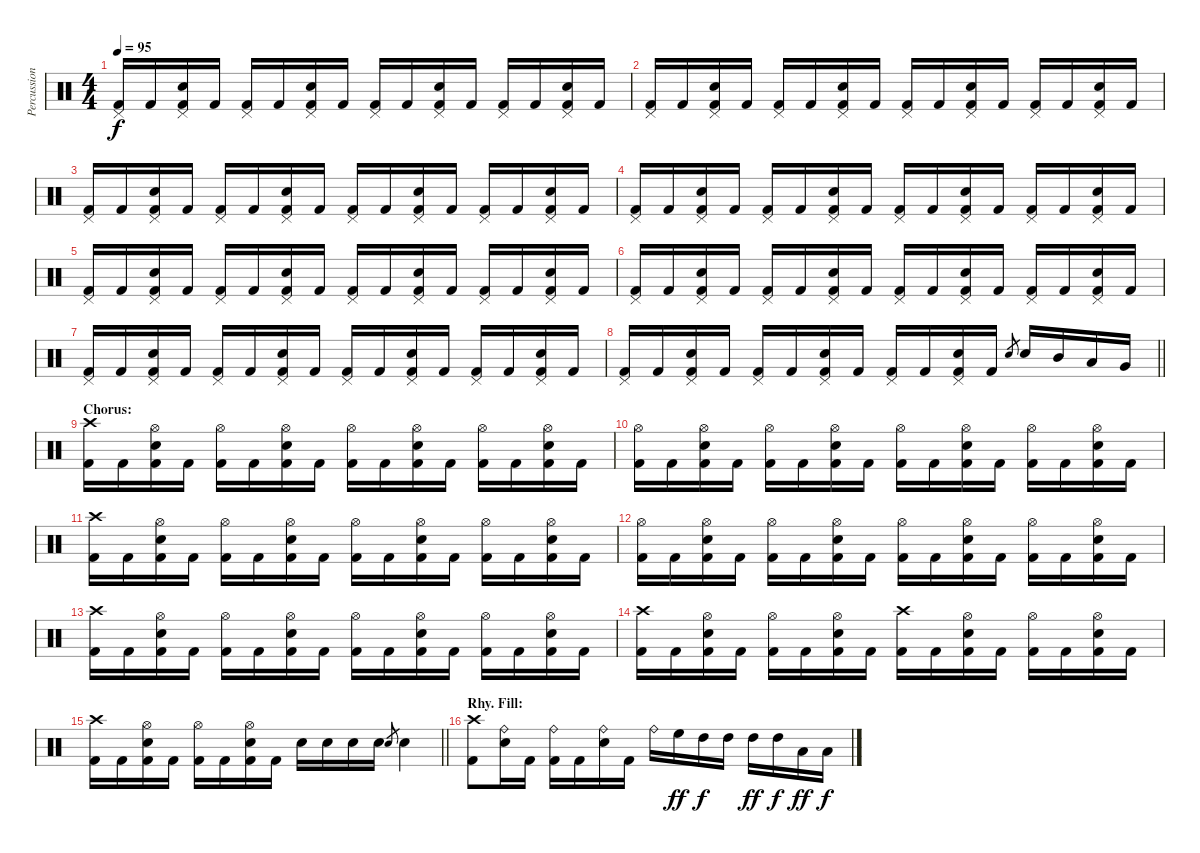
\track ("Percussion" "Percussion") {instrument percussion}
\staff {score}
\articulation defaults
\ts (4 4)
\tempo 95
\clef neutral
\ks c
("Pedal Hi-Hat (hit)" "Kick (hit) 2").16{dy f} "Kick (hit) 2".16 ("Pedal Hi-Hat (hit)" "Electric Snare (hit)" "Kick (hit) 2").16 "Kick (hit) 2".16 ("Pedal Hi-Hat (hit)" "Kick (hit) 2").16 "Kick (hit) 2".16 ("Pedal Hi-Hat (hit)" "Electric Snare (hit)" "Kick (hit) 2").16 "Kick (hit) 2".16 ("Pedal Hi-Hat (hit)" "Kick (hit) 2").16 "Kick (hit) 2".16 ("Pedal Hi-Hat (hit)" "Electric Snare (hit)" "Kick (hit) 2").16 "Kick (hit) 2".16 ("Pedal Hi-Hat (hit)" "Kick (hit) 2").16 "Kick (hit) 2".16 ("Pedal Hi-Hat (hit)" "Electric Snare (hit)" "Kick (hit) 2").16 "Kick (hit) 2".16 |
("Pedal Hi-Hat (hit)" "Kick (hit) 2").16 "Kick (hit) 2".16 ("Pedal Hi-Hat (hit)" "Electric Snare (hit)" "Kick (hit) 2").16 "Kick (hit) 2".16 ("Pedal Hi-Hat (hit)" "Kick (hit) 2").16 "Kick (hit) 2".16 ("Pedal Hi-Hat (hit)" "Electric Snare (hit)" "Kick (hit) 2").16 "Kick (hit) 2".16 ("Pedal Hi-Hat (hit)" "Kick (hit) 2").16 "Kick (hit) 2".16 ("Pedal Hi-Hat (hit)" "Electric Snare (hit)" "Kick (hit) 2").16 "Kick (hit) 2".16 ("Pedal Hi-Hat (hit)" "Kick (hit) 2").16 "Kick (hit) 2".16 ("Pedal Hi-Hat (hit)" "Electric Snare (hit)" "Kick (hit) 2").16 "Kick (hit) 2".16 |
("Pedal Hi-Hat (hit)" "Kick (hit) 2").16 "Kick (hit) 2".16 ("Pedal Hi-Hat (hit)" "Electric Snare (hit)" "Kick (hit) 2").16 "Kick (hit) 2".16 ("Pedal Hi-Hat (hit)" "Kick (hit) 2").16 "Kick (hit) 2".16 ("Pedal Hi-Hat (hit)" "Electric Snare (hit)" "Kick (hit) 2").16 "Kick (hit) 2".16 ("Pedal Hi-Hat (hit)" "Kick (hit) 2").16 "Kick (hit) 2".16 ("Pedal Hi-Hat (hit)" "Electric Snare (hit)" "Kick (hit) 2").16 "Kick (hit) 2".16 ("Pedal Hi-Hat (hit)" "Kick (hit) 2").16 "Kick (hit) 2".16 ("Pedal Hi-Hat (hit)" "Electric Snare (hit)" "Kick (hit) 2").16 "Kick (hit) 2".16 |
("Pedal Hi-Hat (hit)" "Kick (hit) 2").16 "Kick (hit) 2".16 ("Pedal Hi-Hat (hit)" "Electric Snare (hit)" "Kick (hit) 2").16 "Kick (hit) 2".16 ("Pedal Hi-Hat (hit)" "Kick (hit) 2").16 "Kick (hit) 2".16 ("Pedal Hi-Hat (hit)" "Electric Snare (hit)" "Kick (hit) 2").16 "Kick (hit) 2".16 ("Pedal Hi-Hat (hit)" "Kick (hit) 2").16 "Kick (hit) 2".16 ("Pedal Hi-Hat (hit)" "Electric Snare (hit)" "Kick (hit) 2").16 "Kick (hit) 2".16 ("Pedal Hi-Hat (hit)" "Kick (hit) 2").16 "Kick (hit) 2".16 ("Pedal Hi-Hat (hit)" "Electric Snare (hit)" "Kick (hit) 2").16 "Kick (hit) 2".16 |
("Pedal Hi-Hat (hit)" "Kick (hit) 2").16 "Kick (hit) 2".16 ("Pedal Hi-Hat (hit)" "Electric Snare (hit)" "Kick (hit) 2").16 "Kick (hit) 2".16 ("Pedal Hi-Hat (hit)" "Kick (hit) 2").16 "Kick (hit) 2".16 ("Pedal Hi-Hat (hit)" "Electric Snare (hit)" "Kick (hit) 2").16 "Kick (hit) 2".16 ("Pedal Hi-Hat (hit)" "Kick (hit) 2").16 "Kick (hit) 2".16 ("Pedal Hi-Hat (hit)" "Electric Snare (hit)" "Kick (hit) 2").16 "Kick (hit) 2".16 ("Pedal Hi-Hat (hit)" "Kick (hit) 2").16 "Kick (hit) 2".16 ("Pedal Hi-Hat (hit)" "Electric Snare (hit)" "Kick (hit) 2").16 "Kick (hit) 2".16 |
("Pedal Hi-Hat (hit)" "Kick (hit) 2").16 "Kick (hit) 2".16 ("Pedal Hi-Hat (hit)" "Electric Snare (hit)" "Kick (hit) 2").16 "Kick (hit) 2".16 ("Pedal Hi-Hat (hit)" "Kick (hit) 2").16 "Kick (hit) 2".16 ("Pedal Hi-Hat (hit)" "Electric Snare (hit)" "Kick (hit) 2").16 "Kick (hit) 2".16 ("Pedal Hi-Hat (hit)" "Kick (hit) 2").16 "Kick (hit) 2".16 ("Pedal Hi-Hat (hit)" "Electric Snare (hit)" "Kick (hit) 2").16 "Kick (hit) 2".16 ("Pedal Hi-Hat (hit)" "Kick (hit) 2").16 "Kick (hit) 2".16 ("Pedal Hi-Hat (hit)" "Electric Snare (hit)" "Kick (hit) 2").16 "Kick (hit) 2".16 |
("Pedal Hi-Hat (hit)" "Kick (hit) 2").16 "Kick (hit) 2".16 ("Pedal Hi-Hat (hit)" "Electric Snare (hit)" "Kick (hit) 2").16 "Kick (hit) 2".16 ("Pedal Hi-Hat (hit)" "Kick (hit) 2").16 "Kick (hit) 2".16 ("Pedal Hi-Hat (hit)" "Electric Snare (hit)" "Kick (hit) 2").16 "Kick (hit) 2".16 ("Pedal Hi-Hat (hit)" "Kick (hit) 2").16 "Kick (hit) 2".16 ("Pedal Hi-Hat (hit)" "Electric Snare (hit)" "Kick (hit) 2").16 "Kick (hit) 2".16 ("Pedal Hi-Hat (hit)" "Kick (hit) 2").16 "Kick (hit) 2".16 ("Pedal Hi-Hat (hit)" "Electric Snare (hit)" "Kick (hit) 2").16 "Kick (hit) 2".16 |
\barLineRight lightlight
("Pedal Hi-Hat (hit)" "Kick (hit) 2").16 "Kick (hit) 2".16 ("Pedal Hi-Hat (hit)" "Electric Snare (hit)" "Kick (hit) 2").16 "Kick (hit) 2".16 ("Pedal Hi-Hat (hit)" "Kick (hit) 2").16 "Kick (hit) 2".16 ("Pedal Hi-Hat (hit)" "Electric Snare (hit)" "Kick (hit) 2").16 "Kick (hit) 2".16 ("Pedal Hi-Hat (hit)" "Kick (hit) 2").16 "Kick (hit) 2".16 ("Pedal Hi-Hat (hit)" "Electric Snare (hit)" "Kick (hit) 2").16 "Kick (hit) 2".16 "Electric Snare (hit)".8{gr} "Electric Snare (hit)".16 "Mid Tom (hit)".16 "Low Tom (hit)".16 "Very Low Tom (hit)".16 |
\section ("" "Chorus:")
("Crash high (hit)" "Kick (hit) 2").16 "Kick (hit) 2".16 ("Hi-Hat (open)" "Electric Snare (hit)" "Kick (hit) 2").16 "Kick (hit) 2".16 ("Hi-Hat (open)" "Kick (hit) 2").16 "Kick (hit) 2".16 ("Hi-Hat (open)" "Electric Snare (hit)" "Kick (hit) 2").16 "Kick (hit) 2".16 ("Hi-Hat (open)" "Kick (hit) 2").16 "Kick (hit) 2".16 ("Hi-Hat (open)" "Electric Snare (hit)" "Kick (hit) 2").16 "Kick (hit) 2".16 ("Hi-Hat (open)" "Kick (hit) 2").16 "Kick (hit) 2".16 ("Hi-Hat (open)" "Electric Snare (hit)" "Kick (hit) 2").16 "Kick (hit) 2".16 |
("Hi-Hat (open)" "Kick (hit) 2").16 "Kick (hit) 2".16 ("Hi-Hat (open)" "Electric Snare (hit)" "Kick (hit) 2").16 "Kick (hit) 2".16 ("Hi-Hat (open)" "Kick (hit) 2").16 "Kick (hit) 2".16 ("Hi-Hat (open)" "Electric Snare (hit)" "Kick (hit) 2").16 "Kick (hit) 2".16 ("Hi-Hat (open)" "Kick (hit) 2").16 "Kick (hit) 2".16 ("Hi-Hat (open)" "Electric Snare (hit)" "Kick (hit) 2").16 "Kick (hit) 2".16 ("Hi-Hat (open)" "Kick (hit) 2").16 "Kick (hit) 2".16 ("Hi-Hat (open)" "Electric Snare (hit)" "Kick (hit) 2").16 "Kick (hit) 2".16 |
("Crash high (hit)" "Kick (hit) 2").16 "Kick (hit) 2".16 ("Hi-Hat (open)" "Electric Snare (hit)" "Kick (hit) 2").16 "Kick (hit) 2".16 ("Hi-Hat (open)" "Kick (hit) 2").16 "Kick (hit) 2".16 ("Hi-Hat (open)" "Electric Snare (hit)" "Kick (hit) 2").16 "Kick (hit) 2".16 ("Hi-Hat (open)" "Kick (hit) 2").16 "Kick (hit) 2".16 ("Hi-Hat (open)" "Electric Snare (hit)" "Kick (hit) 2").16 "Kick (hit) 2".16 ("Hi-Hat (open)" "Kick (hit) 2").16 "Kick (hit) 2".16 ("Hi-Hat (open)" "Electric Snare (hit)" "Kick (hit) 2").16 "Kick (hit) 2".16 |
("Hi-Hat (open)" "Kick (hit) 2").16 "Kick (hit) 2".16 ("Hi-Hat (open)" "Electric Snare (hit)" "Kick (hit) 2").16 "Kick (hit) 2".16 ("Hi-Hat (open)" "Kick (hit) 2").16 "Kick (hit) 2".16 ("Hi-Hat (open)" "Electric Snare (hit)" "Kick (hit) 2").16 "Kick (hit) 2".16 ("Hi-Hat (open)" "Kick (hit) 2").16 "Kick (hit) 2".16 ("Hi-Hat (open)" "Electric Snare (hit)" "Kick (hit) 2").16 "Kick (hit) 2".16 ("Hi-Hat (open)" "Kick (hit) 2").16 "Kick (hit) 2".16 ("Hi-Hat (open)" "Electric Snare (hit)" "Kick (hit) 2").16 "Kick (hit) 2".16 |
("Crash high (hit)" "Kick (hit) 2").16 "Kick (hit) 2".16 ("Hi-Hat (open)" "Electric Snare (hit)" "Kick (hit) 2").16 "Kick (hit) 2".16 ("Hi-Hat (open)" "Kick (hit) 2").16 "Kick (hit) 2".16 ("Hi-Hat (open)" "Electric Snare (hit)" "Kick (hit) 2").16 "Kick (hit) 2".16 ("Hi-Hat (open)" "Kick (hit) 2").16 "Kick (hit) 2".16 ("Hi-Hat (open)" "Electric Snare (hit)" "Kick (hit) 2").16 "Kick (hit) 2".16 ("Hi-Hat (open)" "Kick (hit) 2").16 "Kick (hit) 2".16 ("Hi-Hat (open)" "Electric Snare (hit)" "Kick (hit) 2").16 "Kick (hit) 2".16 |
("Crash high (hit)" "Kick (hit) 2").16 "Kick (hit) 2".16 ("Hi-Hat (open)" "Electric Snare (hit)" "Kick (hit) 2").16 "Kick (hit) 2".16 ("Hi-Hat (open)" "Kick (hit) 2").16 "Kick (hit) 2".16 ("Hi-Hat (open)" "Electric Snare (hit)" "Kick (hit) 2").16 "Kick (hit) 2".16 ("Crash high (hit)" "Kick (hit) 2").16 "Kick (hit) 2".16 ("Hi-Hat (open)" "Electric Snare (hit)" "Kick (hit) 2").16 "Kick (hit) 2".16 ("Hi-Hat (open)" "Kick (hit) 2").16 "Kick (hit) 2".16 ("Hi-Hat (open)" "Electric Snare (hit)" "Kick (hit) 2").16 "Kick (hit) 2".16 |
\barLineRight lightlight
("Crash high (hit)" "Kick (hit) 2").16 "Kick (hit) 2".16 ("Hi-Hat (open)" "Electric Snare (hit)" "Kick (hit) 2").16 "Kick (hit) 2".16 ("Hi-Hat (open)" "Kick (hit) 2").16 "Kick (hit) 2".16 ("Hi-Hat (open)" "Electric Snare (hit)" "Kick (hit) 2").16 "Kick (hit) 2".16 "Electric Snare (hit)".16 "Electric Snare (hit)".16 "Electric Snare (hit)".16 "Electric Snare (hit)".16 "Electric Snare (hit)".8{gr} "Electric Snare (hit)".4 |
\section ("" "Rhy. Fill:")
("Crash high (hit)" "Kick (hit) 2").8 ("Ride (bell)" "Electric Snare (hit)").16 "Kick (hit) 2".16 ("Ride (bell)" "Kick (hit) 2").16 "Kick (hit) 2".16 ("Ride (bell)" "Electric Snare (hit)").16 "Kick (hit) 2".16 "Ride (bell)".16 "High Floor Tom (hit)".16{dy ff} "High Tom (hit)".16{dy f} "High Tom (hit)".16 "High Tom (hit)".16{dy ff} "High Tom (hit)".16{dy f} "Low Tom (hit)".16{dy ff} "Low Tom (hit)".16{dy f}
